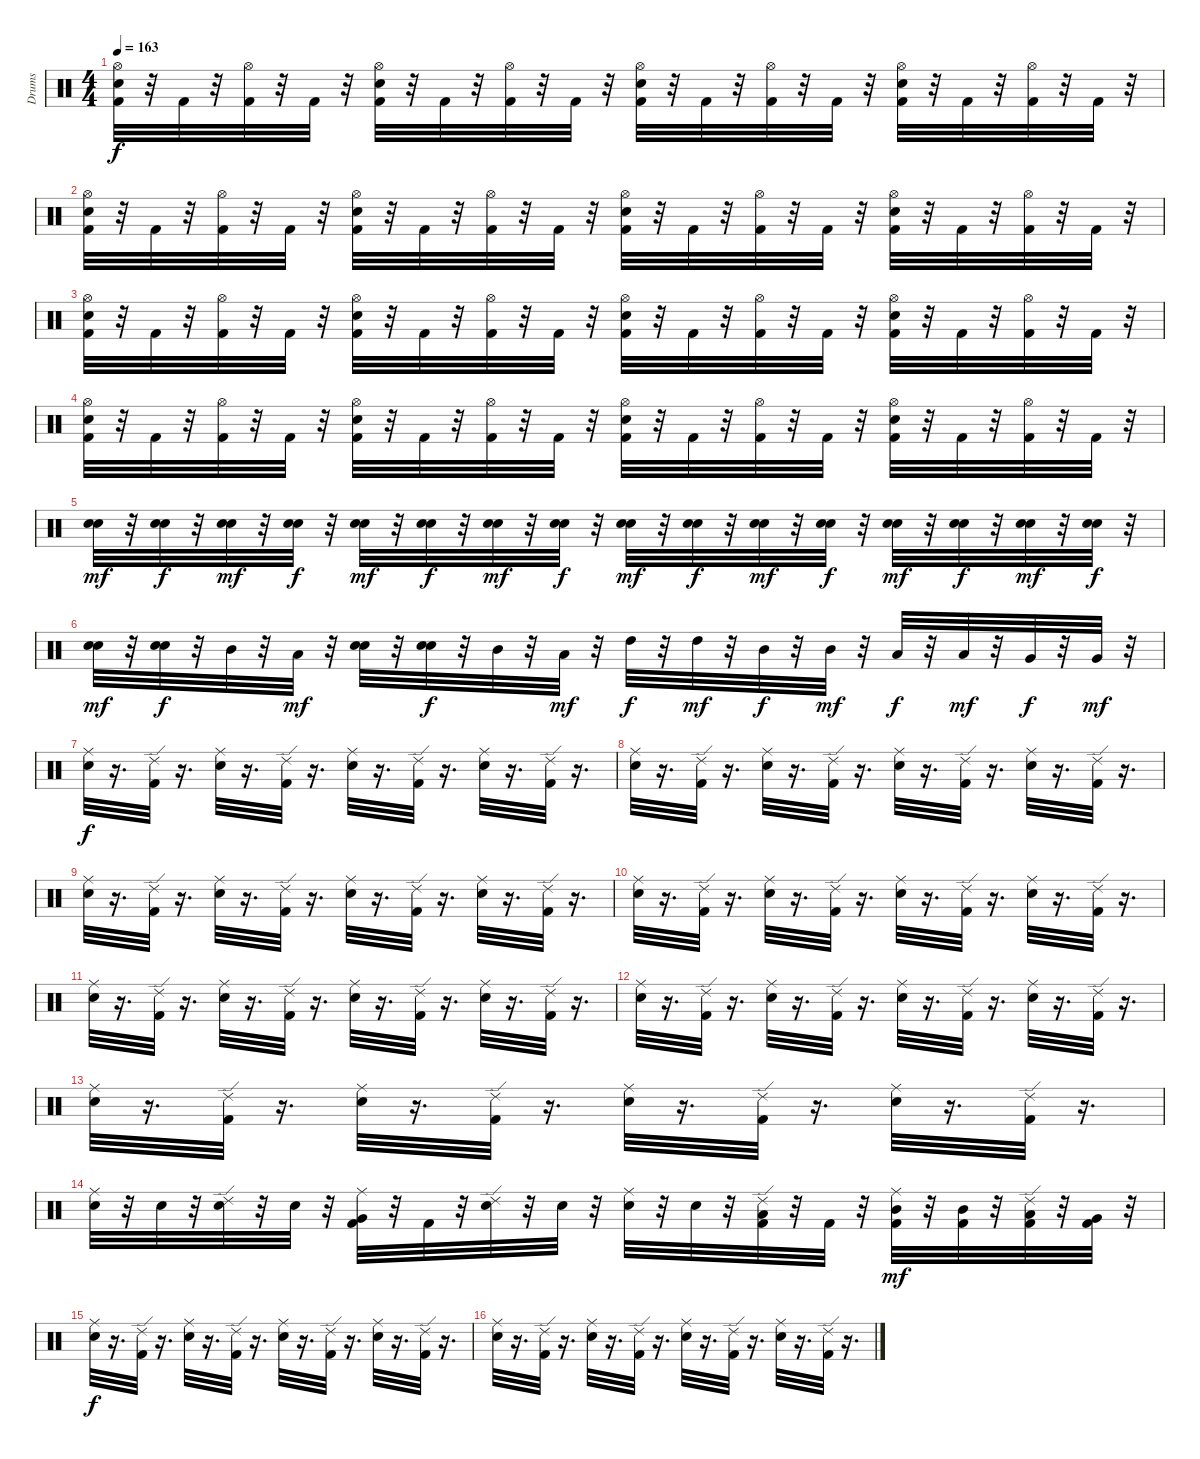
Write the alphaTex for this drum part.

\track ("Drums" "Drums") {instrument percussion}
\staff {score}
\articulation defaults
\ts (4 4)
\tempo 163
\clef neutral
\ks c
("Kick (hit) 2" "Snare (hit) 2" "Hi-Hat (open)").32{dy f} r.32 "Kick (hit) 2".32 r.32 ("Kick (hit) 2" "Hi-Hat (open)").32 r.32 "Kick (hit) 2".32 r.32 ("Kick (hit) 2" "Snare (hit) 2" "Hi-Hat (open)").32 r.32 "Kick (hit) 2".32 r.32 ("Kick (hit) 2" "Hi-Hat (open)").32 r.32 "Kick (hit) 2".32 r.32 ("Kick (hit) 2" "Snare (hit) 2" "Hi-Hat (open)").32 r.32 "Kick (hit) 2".32 r.32 ("Kick (hit) 2" "Hi-Hat (open)").32 r.32 "Kick (hit) 2".32 r.32 ("Kick (hit) 2" "Snare (hit) 2" "Hi-Hat (open)").32 r.32 "Kick (hit) 2".32 r.32 ("Kick (hit) 2" "Hi-Hat (open)").32 r.32 "Kick (hit) 2".32 r.32 |
("Kick (hit) 2" "Snare (hit) 2" "Hi-Hat (open)").32 r.32 "Kick (hit) 2".32 r.32 ("Kick (hit) 2" "Hi-Hat (open)").32 r.32 "Kick (hit) 2".32 r.32 ("Kick (hit) 2" "Snare (hit) 2" "Hi-Hat (open)").32 r.32 "Kick (hit) 2".32 r.32 ("Kick (hit) 2" "Hi-Hat (open)").32 r.32 "Kick (hit) 2".32 r.32 ("Kick (hit) 2" "Snare (hit) 2" "Hi-Hat (open)").32 r.32 "Kick (hit) 2".32 r.32 ("Kick (hit) 2" "Hi-Hat (open)").32 r.32 "Kick (hit) 2".32 r.32 ("Kick (hit) 2" "Snare (hit) 2" "Hi-Hat (open)").32 r.32 "Kick (hit) 2".32 r.32 ("Kick (hit) 2" "Hi-Hat (open)").32 r.32 "Kick (hit) 2".32 r.32 |
("Kick (hit) 2" "Snare (hit) 2" "Hi-Hat (open)").32 r.32 "Kick (hit) 2".32 r.32 ("Kick (hit) 2" "Hi-Hat (open)").32 r.32 "Kick (hit) 2".32 r.32 ("Kick (hit) 2" "Snare (hit) 2" "Hi-Hat (open)").32 r.32 "Kick (hit) 2".32 r.32 ("Kick (hit) 2" "Hi-Hat (open)").32 r.32 "Kick (hit) 2".32 r.32 ("Kick (hit) 2" "Snare (hit) 2" "Hi-Hat (open)").32 r.32 "Kick (hit) 2".32 r.32 ("Kick (hit) 2" "Hi-Hat (open)").32 r.32 "Kick (hit) 2".32 r.32 ("Kick (hit) 2" "Snare (hit) 2" "Hi-Hat (open)").32 r.32 "Kick (hit) 2".32 r.32 ("Kick (hit) 2" "Hi-Hat (open)").32 r.32 "Kick (hit) 2".32 r.32 |
("Kick (hit) 2" "Snare (hit) 2" "Hi-Hat (open)").32 r.32 "Kick (hit) 2".32 r.32 ("Kick (hit) 2" "Hi-Hat (open)").32 r.32 "Kick (hit) 2".32 r.32 ("Kick (hit) 2" "Snare (hit) 2" "Hi-Hat (open)").32 r.32 "Kick (hit) 2".32 r.32 ("Kick (hit) 2" "Hi-Hat (open)").32 r.32 "Kick (hit) 2".32 r.32 ("Kick (hit) 2" "Snare (hit) 2" "Hi-Hat (open)").32 r.32 "Kick (hit) 2".32 r.32 ("Kick (hit) 2" "Hi-Hat (open)").32 r.32 "Kick (hit) 2".32 r.32 ("Kick (hit) 2" "Snare (hit) 2" "Hi-Hat (open)").32 r.32 "Kick (hit) 2".32 r.32 ("Kick (hit) 2" "Hi-Hat (open)").32 r.32 "Kick (hit) 2".32 r.32 |
("Snare (hit) 2" "Electric Snare (hit)").32{dy mf} r.32 ("Snare (hit) 2" "Electric Snare (hit)").32{dy f} r.32 ("Snare (hit) 2" "Electric Snare (hit)").32{dy mf} r.32 ("Snare (hit) 2" "Electric Snare (hit)").32{dy f} r.32 ("Snare (hit) 2" "Electric Snare (hit)").32{dy mf} r.32 ("Snare (hit) 2" "Electric Snare (hit)").32{dy f} r.32 ("Snare (hit) 2" "Electric Snare (hit)").32{dy mf} r.32 ("Snare (hit) 2" "Electric Snare (hit)").32{dy f} r.32 ("Snare (hit) 2" "Electric Snare (hit)").32{dy mf} r.32 ("Snare (hit) 2" "Electric Snare (hit)").32{dy f} r.32 ("Snare (hit) 2" "Electric Snare (hit)").32{dy mf} r.32 ("Snare (hit) 2" "Electric Snare (hit)").32{dy f} r.32 ("Snare (hit) 2" "Electric Snare (hit)").32{dy mf} r.32 ("Snare (hit) 2" "Electric Snare (hit)").32{dy f} r.32 ("Snare (hit) 2" "Electric Snare (hit)").32{dy mf} r.32 ("Snare (hit) 2" "Electric Snare (hit)").32{dy f} r.32 |
("Snare (hit) 2" "Electric Snare (hit)").32{dy mf} r.32 ("Snare (hit) 2" "Electric Snare (hit)").32{dy f} r.32 "Mid Tom (hit)".32 r.32 "Low Tom (hit)".32{dy mf} r.32 ("Snare (hit) 2" "Electric Snare (hit)").32 r.32 ("Snare (hit) 2" "Electric Snare (hit)").32{dy f} r.32 "Mid Tom (hit)".32 r.32 "Low Tom (hit)".32{dy mf} r.32 "High Tom (hit)".32{dy f} r.32 "High Tom (hit)".32{dy mf} r.32 "Mid Tom (hit)".32{dy f} r.32 "Mid Tom (hit)".32{dy mf} r.32 "Low Tom (hit)".32{dy f} r.32 "Low Tom (hit)".32{dy mf} r.32 "Very Low Tom (hit)".32{dy f} r.32 "Very Low Tom (hit)".32{dy mf} r.32 |
("Snare (hit) 2" "Ride (middle)").32{dy f} r.16{d} ("Kick (hit) 2" "Ride (edge) 2").32 r.16{d} ("Snare (hit) 2" "Ride (middle)").32 r.16{d} ("Kick (hit) 2" "Ride (edge) 2").32 r.16{d} ("Snare (hit) 2" "Ride (middle)").32 r.16{d} ("Kick (hit) 2" "Ride (edge) 2").32 r.16{d} ("Snare (hit) 2" "Ride (middle)").32 r.16{d} ("Kick (hit) 2" "Ride (edge) 2").32 r.16{d} |
("Snare (hit) 2" "Ride (middle)").32 r.16{d} ("Kick (hit) 2" "Ride (edge) 2").32 r.16{d} ("Snare (hit) 2" "Ride (middle)").32 r.16{d} ("Kick (hit) 2" "Ride (edge) 2").32 r.16{d} ("Snare (hit) 2" "Ride (middle)").32 r.16{d} ("Kick (hit) 2" "Ride (edge) 2").32 r.16{d} ("Snare (hit) 2" "Ride (middle)").32 r.16{d} ("Kick (hit) 2" "Ride (edge) 2").32 r.16{d} |
("Snare (hit) 2" "Ride (middle)").32 r.16{d} ("Kick (hit) 2" "Ride (edge) 2").32 r.16{d} ("Snare (hit) 2" "Ride (middle)").32 r.16{d} ("Kick (hit) 2" "Ride (edge) 2").32 r.16{d} ("Snare (hit) 2" "Ride (middle)").32 r.16{d} ("Kick (hit) 2" "Ride (edge) 2").32 r.16{d} ("Snare (hit) 2" "Ride (middle)").32 r.16{d} ("Kick (hit) 2" "Ride (edge) 2").32 r.16{d} |
("Snare (hit) 2" "Ride (middle)").32 r.16{d} ("Kick (hit) 2" "Ride (edge) 2").32 r.16{d} ("Snare (hit) 2" "Ride (middle)").32 r.16{d} ("Kick (hit) 2" "Ride (edge) 2").32 r.16{d} ("Snare (hit) 2" "Ride (middle)").32 r.16{d} ("Kick (hit) 2" "Ride (edge) 2").32 r.16{d} ("Snare (hit) 2" "Ride (middle)").32 r.16{d} ("Kick (hit) 2" "Ride (edge) 2").32 r.16{d} |
("Snare (hit) 2" "Ride (middle)").32 r.16{d} ("Kick (hit) 2" "Ride (edge) 2").32 r.16{d} ("Snare (hit) 2" "Ride (middle)").32 r.16{d} ("Kick (hit) 2" "Ride (edge) 2").32 r.16{d} ("Snare (hit) 2" "Ride (middle)").32 r.16{d} ("Kick (hit) 2" "Ride (edge) 2").32 r.16{d} ("Snare (hit) 2" "Ride (middle)").32 r.16{d} ("Kick (hit) 2" "Ride (edge) 2").32 r.16{d} |
("Snare (hit) 2" "Ride (middle)").32 r.16{d} ("Kick (hit) 2" "Ride (edge) 2").32 r.16{d} ("Snare (hit) 2" "Ride (middle)").32 r.16{d} ("Kick (hit) 2" "Ride (edge) 2").32 r.16{d} ("Snare (hit) 2" "Ride (middle)").32 r.16{d} ("Kick (hit) 2" "Ride (edge) 2").32 r.16{d} ("Snare (hit) 2" "Ride (middle)").32 r.16{d} ("Kick (hit) 2" "Ride (edge) 2").32 r.16{d} |
("Snare (hit) 2" "Ride (middle)").32 r.16{d} ("Kick (hit) 2" "Ride (edge) 2").32 r.16{d} ("Snare (hit) 2" "Ride (middle)").32 r.16{d} ("Kick (hit) 2" "Ride (edge) 2").32 r.16{d} ("Snare (hit) 2" "Ride (middle)").32 r.16{d} ("Kick (hit) 2" "Ride (edge) 2").32 r.16{d} ("Snare (hit) 2" "Ride (middle)").32 r.16{d} ("Kick (hit) 2" "Ride (edge) 2").32 r.16{d} |
("Snare (hit) 2" "Ride (middle)").32 r.32 "Snare (hit) 2".32 r.32 ("Snare (hit) 2" "Ride (edge) 2").32 r.32 "Snare (hit) 2".32 r.32 ("Kick (hit) 2" "Very Low Tom (hit)" "Ride (middle)").32 r.32 "Kick (hit) 2".32 r.32 ("Snare (hit) 2" "Ride (edge) 2").32 r.32 "Snare (hit) 2".32 r.32 ("Snare (hit) 2" "Ride (middle)").32 r.32 "Snare (hit) 2".32 r.32 ("Kick (hit) 2" "Low Floor Tom (hit)" "Ride (edge) 2").32 r.32 "Kick (hit) 2".32 r.32 ("Kick (hit) 2" "Mid Tom (hit)" "Ride (middle)").32{dy mf} r.32 ("Kick (hit) 2" "Mid Tom (hit)").32 r.32 ("Kick (hit) 2" "Low Tom (hit)" "Ride (edge) 2").32 r.32 ("Kick (hit) 2" "Very Low Tom (hit)").32 r.32 |
("Snare (hit) 2" "Ride (middle)").32{dy f} r.16{d} ("Kick (hit) 2" "Ride (edge) 2").32 r.16{d} ("Snare (hit) 2" "Ride (middle)").32 r.16{d} ("Kick (hit) 2" "Ride (edge) 2").32 r.16{d} ("Snare (hit) 2" "Ride (middle)").32 r.16{d} ("Kick (hit) 2" "Ride (edge) 2").32 r.16{d} ("Snare (hit) 2" "Ride (middle)").32 r.16{d} ("Kick (hit) 2" "Ride (edge) 2").32 r.16{d} |
("Snare (hit) 2" "Ride (middle)").32 r.16{d} ("Kick (hit) 2" "Ride (edge) 2").32 r.16{d} ("Snare (hit) 2" "Ride (middle)").32 r.16{d} ("Kick (hit) 2" "Ride (edge) 2").32 r.16{d} ("Snare (hit) 2" "Ride (middle)").32 r.16{d} ("Kick (hit) 2" "Ride (edge) 2").32 r.16{d} ("Snare (hit) 2" "Ride (middle)").32 r.16{d} ("Kick (hit) 2" "Ride (edge) 2").32 r.16{d}
